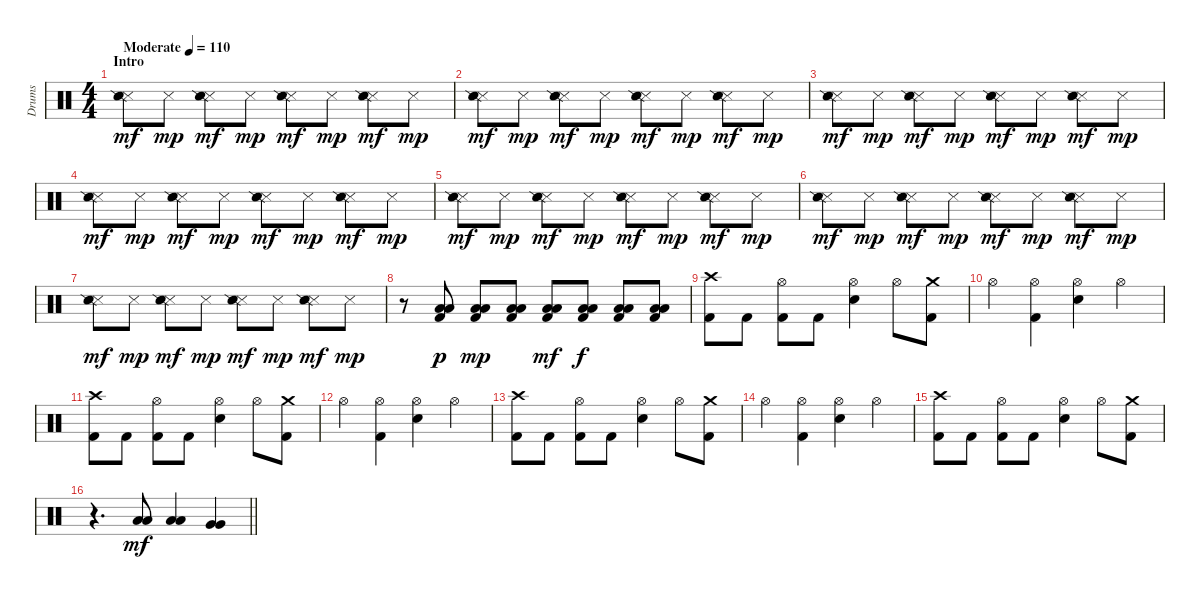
\track ("Drums" "Drums") {instrument percussion}
\staff {score}
\articulation defaults
\ts (4 4)
\section ("" "Intro")
\tempo (110 "Moderate")
\clef neutral
\ks c
("Snare (side stick) 3" "Snare (side stick) 2").8{dy mf balance 12} "Snare (side stick) 3".8{dy mp} ("Snare (side stick) 3" "Snare (side stick) 2").8{dy mf balance 4} "Snare (side stick) 3".8{dy mp} ("Snare (side stick) 3" "Snare (side stick) 2").8{dy mf} "Snare (side stick) 3".8{dy mp} ("Snare (side stick) 3" "Snare (side stick) 2").8{dy mf} "Snare (side stick) 3".8{dy mp} |
("Snare (side stick) 3" "Snare (side stick) 2").8{dy mf balance 4} "Snare (side stick) 3".8{dy mp} ("Snare (side stick) 3" "Snare (side stick) 2").8{dy mf} "Snare (side stick) 3".8{dy mp} ("Snare (side stick) 3" "Snare (side stick) 2").8{dy mf} "Snare (side stick) 3".8{dy mp} ("Snare (side stick) 3" "Snare (side stick) 2").8{dy mf} "Snare (side stick) 3".8{dy mp} |
("Snare (side stick) 3" "Snare (side stick) 2").8{dy mf balance 12} "Snare (side stick) 3".8{dy mp} ("Snare (side stick) 3" "Snare (side stick) 2").8{dy mf} "Snare (side stick) 3".8{dy mp} ("Snare (side stick) 3" "Snare (side stick) 2").8{dy mf} "Snare (side stick) 3".8{dy mp} ("Snare (side stick) 3" "Snare (side stick) 2").8{dy mf} "Snare (side stick) 3".8{dy mp} |
("Snare (side stick) 3" "Snare (side stick) 2").8{dy mf balance 4} "Snare (side stick) 3".8{dy mp} ("Snare (side stick) 3" "Snare (side stick) 2").8{dy mf} "Snare (side stick) 3".8{dy mp} ("Snare (side stick) 3" "Snare (side stick) 2").8{dy mf} "Snare (side stick) 3".8{dy mp} ("Snare (side stick) 3" "Snare (side stick) 2").8{dy mf} "Snare (side stick) 3".8{dy mp} |
("Snare (side stick) 3" "Snare (side stick) 2").8{dy mf balance 12} "Snare (side stick) 3".8{dy mp} ("Snare (side stick) 3" "Snare (side stick) 2").8{dy mf} "Snare (side stick) 3".8{dy mp} ("Snare (side stick) 3" "Snare (side stick) 2").8{dy mf} "Snare (side stick) 3".8{dy mp} ("Snare (side stick) 3" "Snare (side stick) 2").8{dy mf} "Snare (side stick) 3".8{dy mp} |
("Snare (side stick) 3" "Snare (side stick) 2").8{dy mf balance 4} "Snare (side stick) 3".8{dy mp} ("Snare (side stick) 3" "Snare (side stick) 2").8{dy mf} "Snare (side stick) 3".8{dy mp} ("Snare (side stick) 3" "Snare (side stick) 2").8{dy mf} "Snare (side stick) 3".8{dy mp} ("Snare (side stick) 3" "Snare (side stick) 2").8{dy mf} "Snare (side stick) 3".8{dy mp} |
("Snare (side stick) 3" "Snare (side stick) 2").8{dy mf balance 12} "Snare (side stick) 3".8{dy mp} ("Snare (side stick) 3" "Snare (side stick) 2").8{dy mf} "Snare (side stick) 3".8{dy mp} ("Snare (side stick) 3" "Snare (side stick) 2").8{dy mf} "Snare (side stick) 3".8{dy mp} ("Snare (side stick) 3" "Snare (side stick) 2").8{dy mf} "Snare (side stick) 3".8{dy mp} |
r.8{balance 8} ("Low Tom (hit)" "Low Floor Tom (hit)" "Kick (hit) 2").8{dy p} ("Low Tom (hit)" "Low Floor Tom (hit)" "Kick (hit) 2").8{dy mp} ("Low Tom (hit)" "Low Floor Tom (hit)" "Kick (hit) 2").8 ("Low Tom (hit)" "Low Floor Tom (hit)" "Kick (hit) 2").8{dy mf} ("Low Tom (hit)" "Low Floor Tom (hit)" "Kick (hit) 2").8{dy f} ("Low Tom (hit)" "Low Floor Tom (hit)" "Kick (hit) 2").8 ("Low Tom (hit)" "Low Floor Tom (hit)" "Kick (hit) 2").8 |
("Crash high (hit)" "Kick (hit) 2").8 "Kick (hit) 2".8 ("Hi-Hat (open)" "Kick (hit) 2").8 "Kick (hit) 2".8 ("Hi-Hat (open)" "Electric Snare (hit)").4 "Hi-Hat (open)".8 ("Crash medium (hit)" "Kick (hit) 2").8 |
"Hi-Hat (open)".4 ("Hi-Hat (open)" "Kick (hit) 2").4 ("Hi-Hat (open)" "Electric Snare (hit)").4 "Hi-Hat (open)".4 |
("Crash high (hit)" "Kick (hit) 2").8 "Kick (hit) 2".8 ("Hi-Hat (open)" "Kick (hit) 2").8 "Kick (hit) 2".8 ("Hi-Hat (open)" "Electric Snare (hit)").4 "Hi-Hat (open)".8 ("Crash medium (hit)" "Kick (hit) 2").8 |
"Hi-Hat (open)".4 ("Hi-Hat (open)" "Kick (hit) 2").4 ("Hi-Hat (open)" "Electric Snare (hit)").4 "Hi-Hat (open)".4 |
("Crash high (hit)" "Kick (hit) 2").8 "Kick (hit) 2".8 ("Hi-Hat (open)" "Kick (hit) 2").8 "Kick (hit) 2".8 ("Hi-Hat (open)" "Electric Snare (hit)").4 "Hi-Hat (open)".8 ("Crash medium (hit)" "Kick (hit) 2").8 |
"Hi-Hat (open)".4 ("Hi-Hat (open)" "Kick (hit) 2").4 ("Hi-Hat (open)" "Electric Snare (hit)").4 "Hi-Hat (open)".4 |
("Crash high (hit)" "Kick (hit) 2").8 "Kick (hit) 2".8 ("Hi-Hat (open)" "Kick (hit) 2").8 "Kick (hit) 2".8 ("Hi-Hat (open)" "Electric Snare (hit)").4 "Hi-Hat (open)".8 ("Crash medium (hit)" "Kick (hit) 2").8 |
\barLineRight lightlight
r.4{d} ("Low Tom (hit)" "Low Tom (hit)").8{bu 30 dy mf} ("Low Tom (hit)" "Low Tom (hit)").4{bu 30} ("Very Low Tom (hit)" "Very Low Tom (hit)").4{bu 30}
